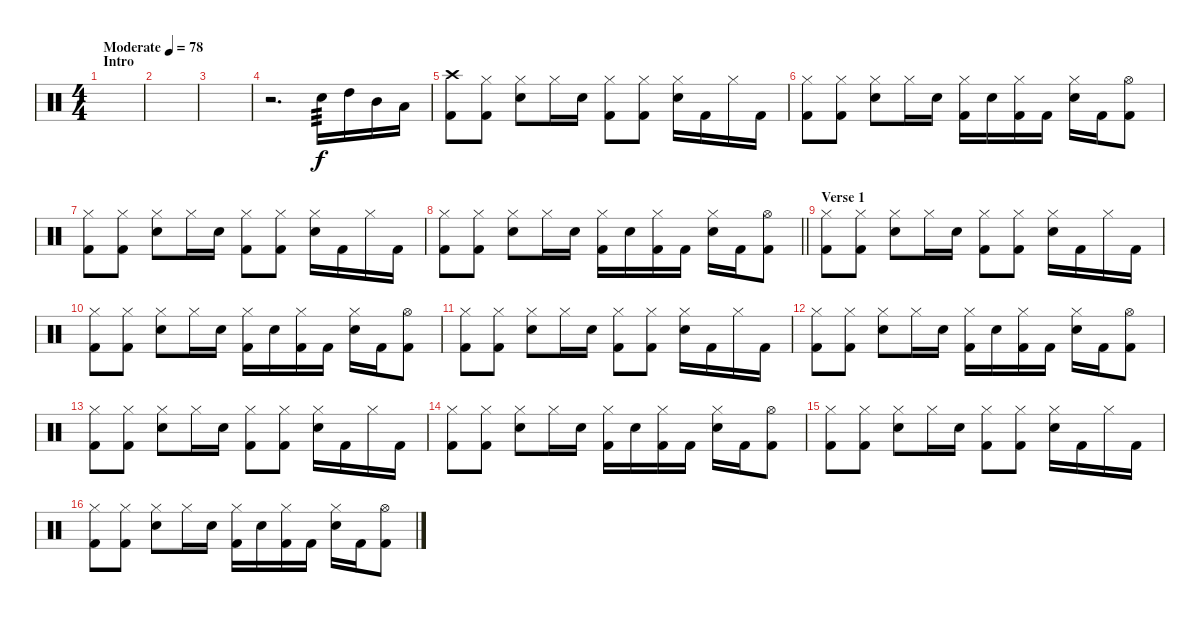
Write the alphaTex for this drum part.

\track "" {instrument percussion}
\staff {score}
\articulation defaults
\ts (4 4)
\section ("" "Intro")
\tempo (78 "Moderate")
\clef neutral
\ks c
|
|
|
r.2{d} "Snare (hit) 2".16{tp 3} "High Tom (hit)".16 "Mid Tom (hit)".16 "Low Tom (hit)".16 |
("Crash high (hit)" "Kick (hit) 2").8 ("Hi-Hat (closed)" "Kick (hit) 2").8 ("Hi-Hat (closed)" "Snare (hit) 2").8 "Hi-Hat (closed)".16 "Snare (hit) 2".16 ("Hi-Hat (closed)" "Kick (hit) 2").8 ("Hi-Hat (closed)" "Kick (hit) 2").8 ("Hi-Hat (closed)" "Snare (hit) 2").16 "Kick (hit) 2".16 "Hi-Hat (closed)".16 "Kick (hit) 2".16 |
("Hi-Hat (closed)" "Kick (hit) 2").8{txt ""} ("Hi-Hat (closed)" "Kick (hit) 2").8 ("Hi-Hat (closed)" "Snare (hit) 2").8 "Hi-Hat (closed)".16 "Snare (hit) 2".16 ("Hi-Hat (closed)" "Kick (hit) 2").16 "Snare (hit) 2".16 ("Hi-Hat (closed)" "Kick (hit) 2").16 "Kick (hit) 2".16 ("Hi-Hat (closed)" "Snare (hit) 2").16 "Kick (hit) 2".16 ("Hi-Hat (open)" "Kick (hit) 2").8 |
("Hi-Hat (closed)" "Kick (hit) 2").8 ("Hi-Hat (closed)" "Kick (hit) 2").8 ("Hi-Hat (closed)" "Snare (hit) 2").8 "Hi-Hat (closed)".16 "Snare (hit) 2".16 ("Hi-Hat (closed)" "Kick (hit) 2").8 ("Hi-Hat (closed)" "Kick (hit) 2").8 ("Hi-Hat (closed)" "Snare (hit) 2").16 "Kick (hit) 2".16 "Hi-Hat (closed)".16 "Kick (hit) 2".16 |
\barLineRight lightlight
("Hi-Hat (closed)" "Kick (hit) 2").8 ("Hi-Hat (closed)" "Kick (hit) 2").8 ("Hi-Hat (closed)" "Snare (hit) 2").8 "Hi-Hat (closed)".16 "Snare (hit) 2".16 ("Hi-Hat (closed)" "Kick (hit) 2").16 "Snare (hit) 2".16 ("Hi-Hat (closed)" "Kick (hit) 2").16 "Kick (hit) 2".16 ("Hi-Hat (closed)" "Snare (hit) 2").16 "Kick (hit) 2".16 ("Hi-Hat (open)" "Kick (hit) 2").8 |
\section ("" "Verse 1")
("Hi-Hat (closed)" "Kick (hit) 2").8 ("Hi-Hat (closed)" "Kick (hit) 2").8 ("Hi-Hat (closed)" "Snare (hit) 2").8 "Hi-Hat (closed)".16 "Snare (hit) 2".16 ("Hi-Hat (closed)" "Kick (hit) 2").8 ("Hi-Hat (closed)" "Kick (hit) 2").8 ("Hi-Hat (closed)" "Snare (hit) 2").16 "Kick (hit) 2".16 "Hi-Hat (closed)".16 "Kick (hit) 2".16 |
("Hi-Hat (closed)" "Kick (hit) 2").8 ("Hi-Hat (closed)" "Kick (hit) 2").8 ("Hi-Hat (closed)" "Snare (hit) 2").8 "Hi-Hat (closed)".16 "Snare (hit) 2".16 ("Hi-Hat (closed)" "Kick (hit) 2").16 "Snare (hit) 2".16 ("Hi-Hat (closed)" "Kick (hit) 2").16 "Kick (hit) 2".16 ("Hi-Hat (closed)" "Snare (hit) 2").16 "Kick (hit) 2".16 ("Hi-Hat (open)" "Kick (hit) 2").8 |
("Hi-Hat (closed)" "Kick (hit) 2").8 ("Hi-Hat (closed)" "Kick (hit) 2").8 ("Hi-Hat (closed)" "Snare (hit) 2").8 "Hi-Hat (closed)".16 "Snare (hit) 2".16 ("Hi-Hat (closed)" "Kick (hit) 2").8 ("Hi-Hat (closed)" "Kick (hit) 2").8 ("Hi-Hat (closed)" "Snare (hit) 2").16 "Kick (hit) 2".16 "Hi-Hat (closed)".16 "Kick (hit) 2".16 |
("Hi-Hat (closed)" "Kick (hit) 2").8 ("Hi-Hat (closed)" "Kick (hit) 2").8 ("Hi-Hat (closed)" "Snare (hit) 2").8 "Hi-Hat (closed)".16 "Snare (hit) 2".16 ("Hi-Hat (closed)" "Kick (hit) 2").16 "Snare (hit) 2".16 ("Hi-Hat (closed)" "Kick (hit) 2").16 "Kick (hit) 2".16 ("Hi-Hat (closed)" "Snare (hit) 2").16 "Kick (hit) 2".16 ("Hi-Hat (open)" "Kick (hit) 2").8 |
("Hi-Hat (closed)" "Kick (hit) 2").8 ("Hi-Hat (closed)" "Kick (hit) 2").8 ("Hi-Hat (closed)" "Snare (hit) 2").8 "Hi-Hat (closed)".16 "Snare (hit) 2".16 ("Hi-Hat (closed)" "Kick (hit) 2").8 ("Hi-Hat (closed)" "Kick (hit) 2").8 ("Hi-Hat (closed)" "Snare (hit) 2").16 "Kick (hit) 2".16 "Hi-Hat (closed)".16 "Kick (hit) 2".16 |
("Hi-Hat (closed)" "Kick (hit) 2").8 ("Hi-Hat (closed)" "Kick (hit) 2").8 ("Hi-Hat (closed)" "Snare (hit) 2").8 "Hi-Hat (closed)".16 "Snare (hit) 2".16 ("Hi-Hat (closed)" "Kick (hit) 2").16 "Snare (hit) 2".16 ("Hi-Hat (closed)" "Kick (hit) 2").16 "Kick (hit) 2".16 ("Hi-Hat (closed)" "Snare (hit) 2").16 "Kick (hit) 2".16 ("Hi-Hat (open)" "Kick (hit) 2").8 |
("Hi-Hat (closed)" "Kick (hit) 2").8 ("Hi-Hat (closed)" "Kick (hit) 2").8 ("Hi-Hat (closed)" "Snare (hit) 2").8 "Hi-Hat (closed)".16 "Snare (hit) 2".16 ("Hi-Hat (closed)" "Kick (hit) 2").8 ("Hi-Hat (closed)" "Kick (hit) 2").8 ("Hi-Hat (closed)" "Snare (hit) 2").16 "Kick (hit) 2".16 "Hi-Hat (closed)".16 "Kick (hit) 2".16 |
("Hi-Hat (closed)" "Kick (hit) 2").8 ("Hi-Hat (closed)" "Kick (hit) 2").8 ("Hi-Hat (closed)" "Snare (hit) 2").8{txt ""} "Hi-Hat (closed)".16 "Snare (hit) 2".16 ("Hi-Hat (closed)" "Kick (hit) 2").16 "Snare (hit) 2".16 ("Hi-Hat (closed)" "Kick (hit) 2").16 "Kick (hit) 2".16 ("Hi-Hat (closed)" "Snare (hit) 2").16 "Kick (hit) 2".16 ("Hi-Hat (open)" "Kick (hit) 2").8
